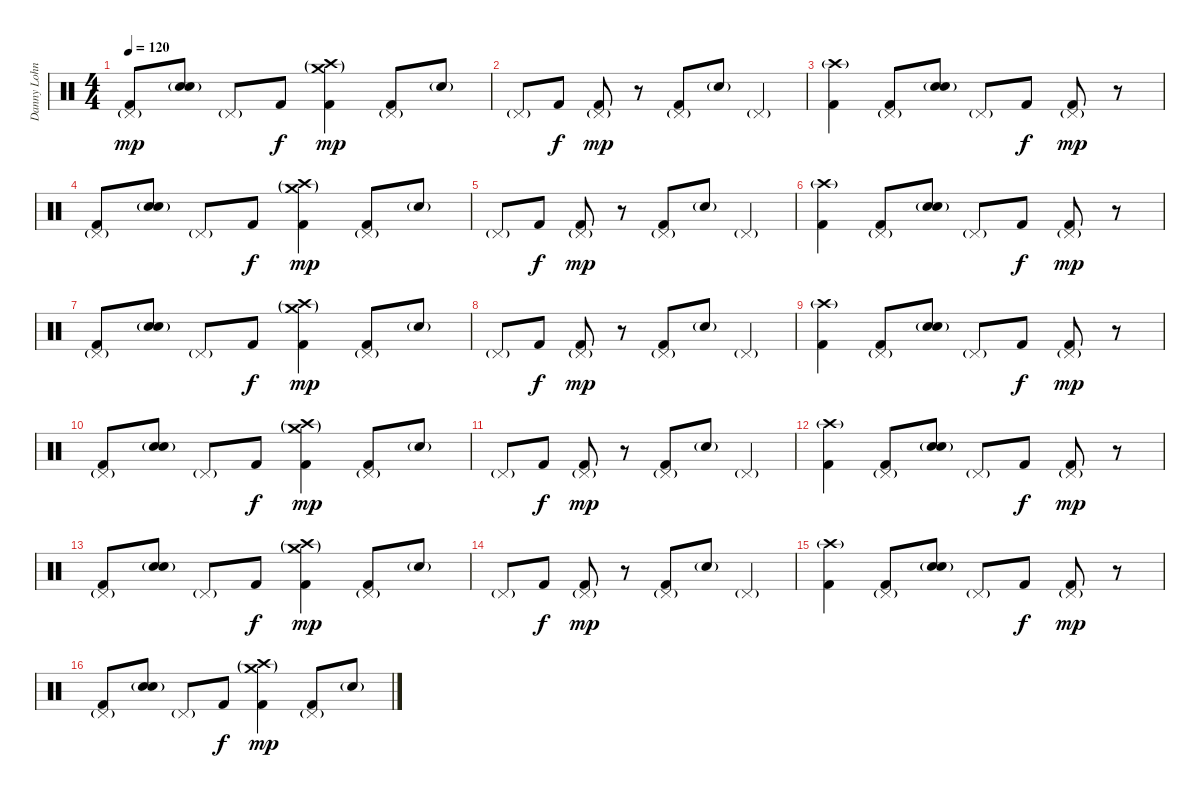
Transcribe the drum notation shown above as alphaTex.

\track ("Danny Lohner" "Danny Lohn") {instrument percussion}
\staff {score}
\articulation defaults
\ts (4 4)
\tempo 120
\clef neutral
\ks c
("Pedal Hi-Hat (hit)"{g} "Kick (hit) 2").8{dy mp} ("Hand Clap (hit)"{g} "Electric Snare (hit)"{g}).8 "Pedal Hi-Hat (hit)"{g}.8 "Kick (hit) 2".8{dy f} ("Crash high (hit)"{g} "Crash medium (hit)"{g} "Kick (hit) 2").4{dy mp} ("Pedal Hi-Hat (hit)"{g} "Kick (hit) 2").8 "Electric Snare (hit)"{g}.8 |
"Pedal Hi-Hat (hit)"{g}.8 "Kick (hit) 2".8{dy f} ("Pedal Hi-Hat (hit)"{g} "Kick (hit) 2").8{dy mp} r.8 ("Pedal Hi-Hat (hit)"{g} "Kick (hit) 2").8 "Electric Snare (hit)"{g}.8 "Pedal Hi-Hat (hit)"{g}.4 |
("Crash high (hit)"{g} "Kick (hit) 2").4 ("Pedal Hi-Hat (hit)"{g} "Kick (hit) 2").8 ("Hand Clap (hit)"{g} "Electric Snare (hit)"{g}).8 "Pedal Hi-Hat (hit)"{g}.8 "Kick (hit) 2".8{dy f} ("Pedal Hi-Hat (hit)"{g} "Kick (hit) 2").8{dy mp} r.8 |
("Pedal Hi-Hat (hit)"{g} "Kick (hit) 2").8 ("Hand Clap (hit)"{g} "Electric Snare (hit)"{g}).8 "Pedal Hi-Hat (hit)"{g}.8 "Kick (hit) 2".8{dy f} ("Crash high (hit)"{g} "Crash medium (hit)"{g} "Kick (hit) 2").4{dy mp} ("Pedal Hi-Hat (hit)"{g} "Kick (hit) 2").8 "Electric Snare (hit)"{g}.8 |
"Pedal Hi-Hat (hit)"{g}.8 "Kick (hit) 2".8{dy f} ("Pedal Hi-Hat (hit)"{g} "Kick (hit) 2").8{dy mp} r.8 ("Pedal Hi-Hat (hit)"{g} "Kick (hit) 2").8 "Electric Snare (hit)"{g}.8 "Pedal Hi-Hat (hit)"{g}.4 |
("Crash high (hit)"{g} "Kick (hit) 2").4 ("Pedal Hi-Hat (hit)"{g} "Kick (hit) 2").8 ("Hand Clap (hit)"{g} "Electric Snare (hit)"{g}).8 "Pedal Hi-Hat (hit)"{g}.8 "Kick (hit) 2".8{dy f} ("Pedal Hi-Hat (hit)"{g} "Kick (hit) 2").8{dy mp} r.8 |
("Pedal Hi-Hat (hit)"{g} "Kick (hit) 2").8 ("Hand Clap (hit)"{g} "Electric Snare (hit)"{g}).8 "Pedal Hi-Hat (hit)"{g}.8 "Kick (hit) 2".8{dy f} ("Crash high (hit)"{g} "Crash medium (hit)"{g} "Kick (hit) 2").4{dy mp} ("Pedal Hi-Hat (hit)"{g} "Kick (hit) 2").8 "Electric Snare (hit)"{g}.8 |
"Pedal Hi-Hat (hit)"{g}.8 "Kick (hit) 2".8{dy f} ("Pedal Hi-Hat (hit)"{g} "Kick (hit) 2").8{dy mp} r.8 ("Pedal Hi-Hat (hit)"{g} "Kick (hit) 2").8 "Electric Snare (hit)"{g}.8 "Pedal Hi-Hat (hit)"{g}.4 |
("Crash high (hit)"{g} "Kick (hit) 2").4 ("Pedal Hi-Hat (hit)"{g} "Kick (hit) 2").8 ("Hand Clap (hit)"{g} "Electric Snare (hit)"{g}).8 "Pedal Hi-Hat (hit)"{g}.8 "Kick (hit) 2".8{dy f} ("Pedal Hi-Hat (hit)"{g} "Kick (hit) 2").8{dy mp} r.8 |
("Pedal Hi-Hat (hit)"{g} "Kick (hit) 2").8 ("Hand Clap (hit)"{g} "Electric Snare (hit)"{g}).8 "Pedal Hi-Hat (hit)"{g}.8 "Kick (hit) 2".8{dy f} ("Crash high (hit)"{g} "Crash medium (hit)"{g} "Kick (hit) 2").4{dy mp} ("Pedal Hi-Hat (hit)"{g} "Kick (hit) 2").8 "Electric Snare (hit)"{g}.8 |
"Pedal Hi-Hat (hit)"{g}.8 "Kick (hit) 2".8{dy f} ("Pedal Hi-Hat (hit)"{g} "Kick (hit) 2").8{dy mp} r.8 ("Pedal Hi-Hat (hit)"{g} "Kick (hit) 2").8 "Electric Snare (hit)"{g}.8 "Pedal Hi-Hat (hit)"{g}.4 |
("Crash high (hit)"{g} "Kick (hit) 2").4 ("Pedal Hi-Hat (hit)"{g} "Kick (hit) 2").8 ("Hand Clap (hit)"{g} "Electric Snare (hit)"{g}).8 "Pedal Hi-Hat (hit)"{g}.8 "Kick (hit) 2".8{dy f} ("Pedal Hi-Hat (hit)"{g} "Kick (hit) 2").8{dy mp} r.8 |
("Pedal Hi-Hat (hit)"{g} "Kick (hit) 2").8 ("Hand Clap (hit)"{g} "Electric Snare (hit)"{g}).8 "Pedal Hi-Hat (hit)"{g}.8 "Kick (hit) 2".8{dy f} ("Crash high (hit)"{g} "Crash medium (hit)"{g} "Kick (hit) 2").4{dy mp} ("Pedal Hi-Hat (hit)"{g} "Kick (hit) 2").8 "Electric Snare (hit)"{g}.8 |
"Pedal Hi-Hat (hit)"{g}.8 "Kick (hit) 2".8{dy f} ("Pedal Hi-Hat (hit)"{g} "Kick (hit) 2").8{dy mp} r.8 ("Pedal Hi-Hat (hit)"{g} "Kick (hit) 2").8 "Electric Snare (hit)"{g}.8 "Pedal Hi-Hat (hit)"{g}.4 |
("Crash high (hit)"{g} "Kick (hit) 2").4 ("Pedal Hi-Hat (hit)"{g} "Kick (hit) 2").8 ("Hand Clap (hit)"{g} "Electric Snare (hit)"{g}).8 "Pedal Hi-Hat (hit)"{g}.8 "Kick (hit) 2".8{dy f} ("Pedal Hi-Hat (hit)"{g} "Kick (hit) 2").8{dy mp} r.8 |
("Pedal Hi-Hat (hit)"{g} "Kick (hit) 2").8 ("Hand Clap (hit)"{g} "Electric Snare (hit)"{g}).8 "Pedal Hi-Hat (hit)"{g}.8 "Kick (hit) 2".8{dy f} ("Crash high (hit)"{g} "Crash medium (hit)"{g} "Kick (hit) 2").4{dy mp} ("Pedal Hi-Hat (hit)"{g} "Kick (hit) 2").8 "Electric Snare (hit)"{g}.8
